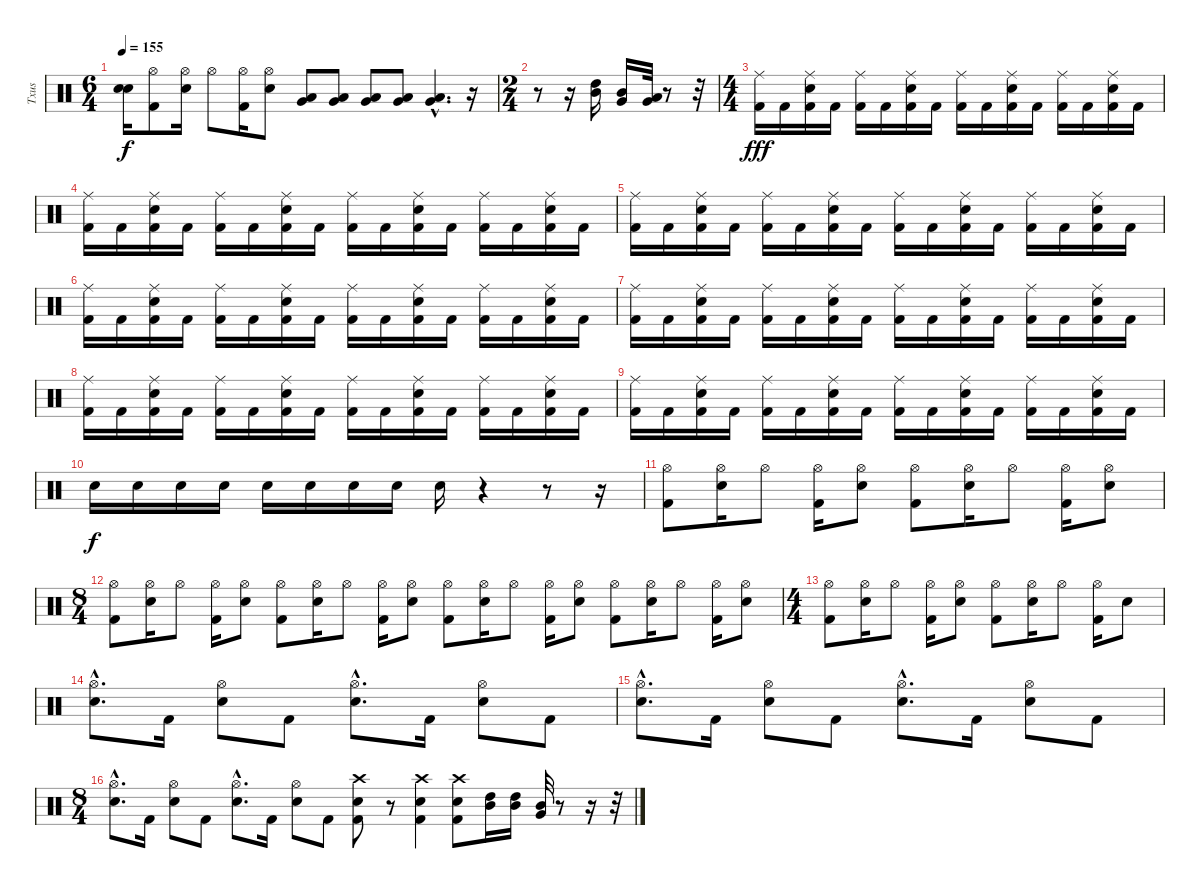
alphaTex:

\track ("Txus" "Txus") {instrument percussion}
\staff {score}
\articulation defaults
\ts (6 4)
\tempo 155
\clef neutral
\ks c
("Snare (hit)"{t} "Snare (hit)"{t}).16{dy f} ("Kick (hit) 2" "Hi-Hat (open)").8 ("Snare (hit) 2" "Hi-Hat (open)").16 "Hi-Hat (open)".8 ("Kick (hit) 2" "Hi-Hat (open)").16 ("Snare (hit) 2" "Hi-Hat (open)").8 ("Low Floor Tom (hit)" "Very Low Tom (hit)").8 ("Low Floor Tom (hit)" "Very Low Tom (hit)").8 ("Low Floor Tom (hit)" "Very Low Tom (hit)").8 ("Low Floor Tom (hit)" "Very Low Tom (hit)").8 ("Low Floor Tom (hit)"{hac} "Very Low Tom (hit)"{hac}).4{d} r.16 |
\ts (2 4)
r.8 r.16 ("Mid Tom (hit)" "High Tom (hit)").16 ("Very Low Tom (hit)" "Mid Tom (hit)").16 ("Low Floor Tom (hit)" "Very Low Tom (hit)").32 r.8 r.32 |
\ts (4 4)
("Kick (hit) 2" "Ride (middle)").16{dy fff} "Kick (hit) 2".16 ("Kick (hit) 2" "Snare (hit) 2" "Ride (middle)").16 "Kick (hit) 2".16 ("Kick (hit) 2" "Ride (middle)").16 "Kick (hit) 2".16 ("Kick (hit) 2" "Snare (hit) 2" "Ride (middle)").16 "Kick (hit) 2".16 ("Kick (hit) 2" "Ride (middle)").16 "Kick (hit) 2".16 ("Kick (hit) 2" "Snare (hit) 2" "Ride (middle)").16 "Kick (hit) 2".16 ("Kick (hit) 2" "Ride (middle)").16 "Kick (hit) 2".16 ("Kick (hit) 2" "Snare (hit) 2" "Ride (middle)").16 "Kick (hit) 2".16 |
("Kick (hit) 2" "Ride (middle)").16 "Kick (hit) 2".16 ("Kick (hit) 2" "Snare (hit) 2" "Ride (middle)").16 "Kick (hit) 2".16 ("Kick (hit) 2" "Ride (middle)").16 "Kick (hit) 2".16 ("Kick (hit) 2" "Snare (hit) 2" "Ride (middle)").16 "Kick (hit) 2".16 ("Kick (hit) 2" "Ride (middle)").16 "Kick (hit) 2".16 ("Kick (hit) 2" "Snare (hit) 2" "Ride (middle)").16 "Kick (hit) 2".16 ("Kick (hit) 2" "Ride (middle)").16 "Kick (hit) 2".16 ("Kick (hit) 2" "Snare (hit) 2" "Ride (middle)").16 "Kick (hit) 2".16 |
("Kick (hit) 2" "Ride (middle)").16 "Kick (hit) 2".16 ("Kick (hit) 2" "Snare (hit) 2" "Ride (middle)").16 "Kick (hit) 2".16 ("Kick (hit) 2" "Ride (middle)").16 "Kick (hit) 2".16 ("Kick (hit) 2" "Snare (hit) 2" "Ride (middle)").16 "Kick (hit) 2".16 ("Kick (hit) 2" "Ride (middle)").16 "Kick (hit) 2".16 ("Kick (hit) 2" "Snare (hit) 2" "Ride (middle)").16 "Kick (hit) 2".16 ("Kick (hit) 2" "Ride (middle)").16 "Kick (hit) 2".16 ("Kick (hit) 2" "Snare (hit) 2" "Ride (middle)").16 "Kick (hit) 2".16 |
("Kick (hit) 2" "Ride (middle)").16 "Kick (hit) 2".16 ("Kick (hit) 2" "Snare (hit) 2" "Ride (middle)").16 "Kick (hit) 2".16 ("Kick (hit) 2" "Ride (middle)").16 "Kick (hit) 2".16 ("Kick (hit) 2" "Snare (hit) 2" "Ride (middle)").16 "Kick (hit) 2".16 ("Kick (hit) 2" "Ride (middle)").16 "Kick (hit) 2".16 ("Kick (hit) 2" "Snare (hit) 2" "Ride (middle)").16 "Kick (hit) 2".16 ("Kick (hit) 2" "Ride (middle)").16 "Kick (hit) 2".16 ("Kick (hit) 2" "Snare (hit) 2" "Ride (middle)").16 "Kick (hit) 2".16 |
("Kick (hit) 2" "Ride (middle)").16 "Kick (hit) 2".16 ("Kick (hit) 2" "Snare (hit) 2" "Ride (middle)").16 "Kick (hit) 2".16 ("Kick (hit) 2" "Ride (middle)").16 "Kick (hit) 2".16 ("Kick (hit) 2" "Snare (hit) 2" "Ride (middle)").16 "Kick (hit) 2".16 ("Kick (hit) 2" "Ride (middle)").16 "Kick (hit) 2".16 ("Kick (hit) 2" "Snare (hit) 2" "Ride (middle)").16 "Kick (hit) 2".16 ("Kick (hit) 2" "Ride (middle)").16 "Kick (hit) 2".16 ("Kick (hit) 2" "Snare (hit) 2" "Ride (middle)").16 "Kick (hit) 2".16 |
("Kick (hit) 2" "Ride (middle)").16 "Kick (hit) 2".16 ("Kick (hit) 2" "Snare (hit) 2" "Ride (middle)").16 "Kick (hit) 2".16 ("Kick (hit) 2" "Ride (middle)").16 "Kick (hit) 2".16 ("Kick (hit) 2" "Snare (hit) 2" "Ride (middle)").16 "Kick (hit) 2".16 ("Kick (hit) 2" "Ride (middle)").16 "Kick (hit) 2".16 ("Kick (hit) 2" "Snare (hit) 2" "Ride (middle)").16 "Kick (hit) 2".16 ("Kick (hit) 2" "Ride (middle)").16 "Kick (hit) 2".16 ("Kick (hit) 2" "Snare (hit) 2" "Ride (middle)").16 "Kick (hit) 2".16 |
("Kick (hit) 2" "Ride (middle)").16 "Kick (hit) 2".16 ("Kick (hit) 2" "Snare (hit) 2" "Ride (middle)").16 "Kick (hit) 2".16 ("Kick (hit) 2" "Ride (middle)").16 "Kick (hit) 2".16 ("Kick (hit) 2" "Snare (hit) 2" "Ride (middle)").16 "Kick (hit) 2".16 ("Kick (hit) 2" "Ride (middle)").16 "Kick (hit) 2".16 ("Kick (hit) 2" "Snare (hit) 2" "Ride (middle)").16 "Kick (hit) 2".16 ("Kick (hit) 2" "Ride (middle)").16 "Kick (hit) 2".16 ("Kick (hit) 2" "Snare (hit) 2" "Ride (middle)").16 "Kick (hit) 2".16 |
"Snare (hit) 2".16{dy f} "Snare (hit) 2".16 "Snare (hit) 2".16 "Snare (hit) 2".16 "Snare (hit) 2".16 "Snare (hit) 2".16 "Snare (hit) 2".16 "Snare (hit) 2".16 "Snare (hit) 2".16 r.4 r.8 r.16 |
("Kick (hit) 2" "Hi-Hat (open)").8 ("Snare (hit) 2" "Hi-Hat (open)").16 "Hi-Hat (open)".8 ("Kick (hit) 2" "Hi-Hat (open)").16 ("Snare (hit) 2" "Hi-Hat (open)").8 ("Kick (hit) 2" "Hi-Hat (open)").8 ("Snare (hit) 2" "Hi-Hat (open)").16 "Hi-Hat (open)".8 ("Kick (hit) 2" "Hi-Hat (open)").16 ("Snare (hit) 2" "Hi-Hat (open)").8 |
\ts (8 4)
("Kick (hit) 2" "Hi-Hat (open)").8 ("Snare (hit) 2" "Hi-Hat (open)").16 "Hi-Hat (open)".8 ("Kick (hit) 2" "Hi-Hat (open)").16 ("Snare (hit) 2" "Hi-Hat (open)").8 ("Kick (hit) 2" "Hi-Hat (open)").8 ("Snare (hit) 2" "Hi-Hat (open)").16 "Hi-Hat (open)".8 ("Kick (hit) 2" "Hi-Hat (open)").16 ("Snare (hit) 2" "Hi-Hat (open)").8 ("Kick (hit) 2" "Hi-Hat (open)").8 ("Snare (hit) 2" "Hi-Hat (open)").16 "Hi-Hat (open)".8 ("Kick (hit) 2" "Hi-Hat (open)").16 ("Snare (hit) 2" "Hi-Hat (open)").8 ("Kick (hit) 2" "Hi-Hat (open)").8 ("Snare (hit) 2" "Hi-Hat (open)").16 "Hi-Hat (open)".8 ("Kick (hit) 2" "Hi-Hat (open)").16 ("Snare (hit) 2" "Hi-Hat (open)").8 |
\ts (4 4)
("Kick (hit) 2" "Hi-Hat (open)").8 ("Snare (hit) 2" "Hi-Hat (open)").16 "Hi-Hat (open)".8 ("Kick (hit) 2" "Hi-Hat (open)").16 ("Snare (hit) 2" "Hi-Hat (open)").8 ("Kick (hit) 2" "Hi-Hat (open)").8 ("Snare (hit) 2" "Hi-Hat (open)").16 "Hi-Hat (open)".8 ("Kick (hit) 2" "Hi-Hat (open)").16 "Snare (hit) 2".8 |
("Snare (hit) 2"{hac} "Hi-Hat (open)"{hac}).8{d} "Kick (hit) 2".16 ("Snare (hit) 2" "Hi-Hat (open)").8 "Kick (hit) 2".8 ("Snare (hit) 2"{hac} "Hi-Hat (open)"{hac}).8{d} "Kick (hit) 2".16 ("Snare (hit) 2" "Hi-Hat (open)").8 "Kick (hit) 2".8 |
("Snare (hit) 2"{hac} "Hi-Hat (open)"{hac}).8{d} "Kick (hit) 2".16 ("Snare (hit) 2" "Hi-Hat (open)").8 "Kick (hit) 2".8 ("Snare (hit) 2"{hac} "Hi-Hat (open)"{hac}).8{d} "Kick (hit) 2".16 ("Snare (hit) 2" "Hi-Hat (open)").8 "Kick (hit) 2".8 |
\ts (8 4)
("Snare (hit) 2"{hac} "Hi-Hat (open)"{hac}).8{d} "Kick (hit) 2".16 ("Snare (hit) 2" "Hi-Hat (open)").8 "Kick (hit) 2".8 ("Snare (hit) 2"{hac} "Hi-Hat (open)"{hac}).8{d} "Kick (hit) 2".16 ("Snare (hit) 2" "Hi-Hat (open)").8 "Kick (hit) 2".8 ("Kick (hit) 2" "Snare (hit) 2" "Crash high (hit)").8 r.8 ("Kick (hit) 2" "Snare (hit) 2" "Crash high (hit)").4 ("Kick (hit) 2" "Snare (hit) 2" "Crash high (hit)").8 ("Mid Tom (hit)" "High Tom (hit)").16 ("Mid Tom (hit)" "High Tom (hit)").16 ("Very Low Tom (hit)" "Mid Tom (hit)").32 r.8 r.16 r.32
